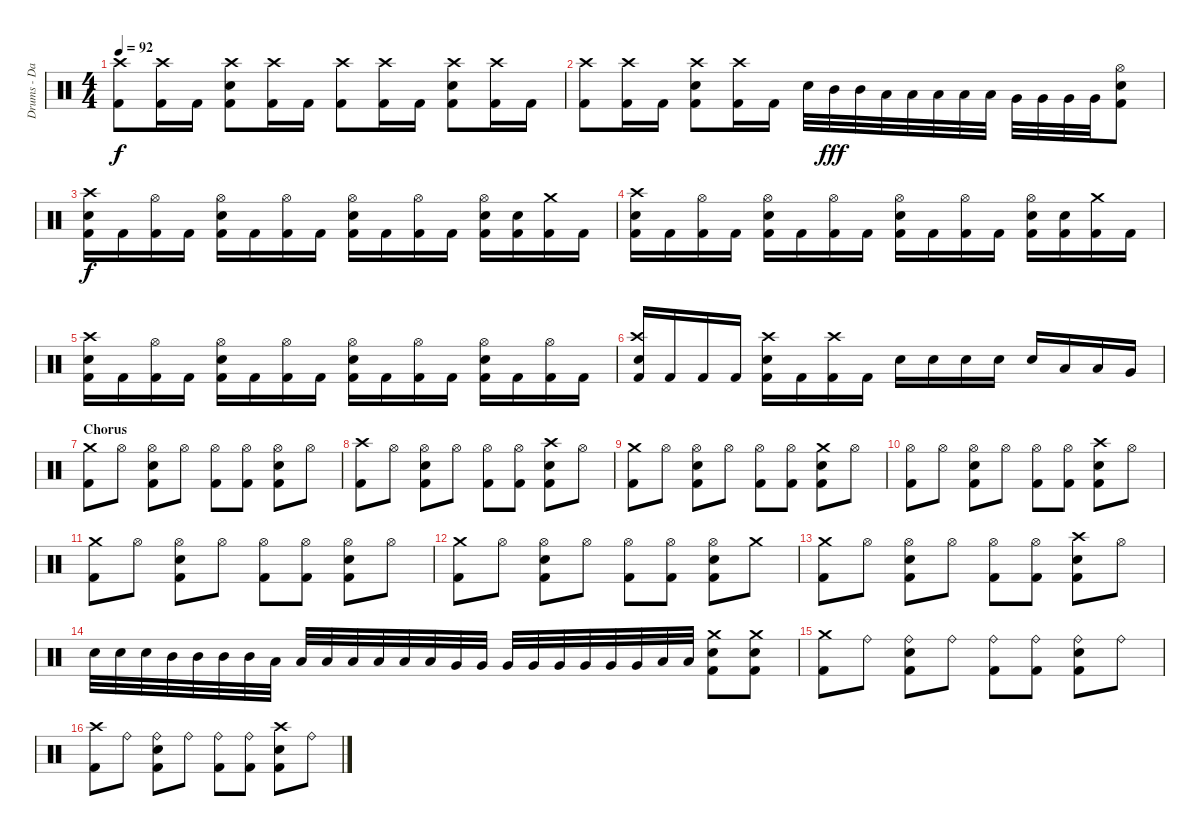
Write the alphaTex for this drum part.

\track ("Drums - Daniel Zimmermann" "Drums - Da") {instrument percussion}
\staff {score}
\articulation defaults
\ts (4 4)
\tempo 92
\clef neutral
\ks c
("Kick (hit) 2" "Crash high (hit)").8{dy f} ("Kick (hit) 2" "Crash high (hit)").16 "Kick (hit) 2".16 ("Kick (hit) 2" "Electric Snare (hit)" "Crash high (hit)").8 ("Kick (hit) 2" "Crash high (hit)").16 "Kick (hit) 2".16 ("Kick (hit) 2" "Crash high (hit)").8 ("Kick (hit) 2" "Crash high (hit)").16 "Kick (hit) 2".16 ("Kick (hit) 2" "Electric Snare (hit)" "Crash high (hit)").8 ("Kick (hit) 2" "Crash high (hit)").16 "Kick (hit) 2".16 |
("Kick (hit) 2" "Crash high (hit)").8 ("Kick (hit) 2" "Crash high (hit)").16 "Kick (hit) 2".16 ("Kick (hit) 2" "Electric Snare (hit)" "Crash high (hit)").8 ("Kick (hit) 2" "Crash high (hit)").16 "Kick (hit) 2".16 "Electric Snare (hit)".32 "Mid Tom (hit)".32{dy fff} "Mid Tom (hit)".32 "Low Tom (hit)".32 "Low Tom (hit)".32 "Low Tom (hit)".32 "Low Tom (hit)".32 "Low Tom (hit)".32 "Very Low Tom (hit)".32 "Very Low Tom (hit)".32 "Very Low Tom (hit)".32 "Very Low Tom (hit)".32 ("Kick (hit) 2" "Electric Snare (hit)" "Hi-Hat (open)").8 |
("Kick (hit) 2" "Electric Snare (hit)" "Crash high (hit)").16{dy f} "Kick (hit) 2".16 ("Kick (hit) 2" "Hi-Hat (open)").16 "Kick (hit) 2".16 ("Kick (hit) 2" "Electric Snare (hit)" "Hi-Hat (open)").16 "Kick (hit) 2".16 ("Kick (hit) 2" "Hi-Hat (open)").16 "Kick (hit) 2".16 ("Kick (hit) 2" "Electric Snare (hit)" "Hi-Hat (open)").16 "Kick (hit) 2".16 ("Kick (hit) 2" "Hi-Hat (open)").16 "Kick (hit) 2".16 ("Kick (hit) 2" "Electric Snare (hit)" "Hi-Hat (open)").16 ("Kick (hit) 2" "Electric Snare (hit)").16 ("Kick (hit) 2" "Crash medium (hit)").16 "Kick (hit) 2".16 |
("Kick (hit) 2" "Electric Snare (hit)" "Crash high (hit)").16 "Kick (hit) 2".16 ("Kick (hit) 2" "Hi-Hat (open)").16 "Kick (hit) 2".16 ("Kick (hit) 2" "Electric Snare (hit)" "Hi-Hat (open)").16 "Kick (hit) 2".16 ("Kick (hit) 2" "Hi-Hat (open)").16 "Kick (hit) 2".16 ("Kick (hit) 2" "Electric Snare (hit)" "Hi-Hat (open)").16 "Kick (hit) 2".16 ("Kick (hit) 2" "Hi-Hat (open)").16 "Kick (hit) 2".16 ("Kick (hit) 2" "Electric Snare (hit)" "Hi-Hat (open)").16 ("Kick (hit) 2" "Electric Snare (hit)").16 ("Kick (hit) 2" "Crash medium (hit)").16 "Kick (hit) 2".16 |
("Kick (hit) 2" "Electric Snare (hit)" "Crash high (hit)").16 "Kick (hit) 2".16 ("Kick (hit) 2" "Hi-Hat (open)").16 "Kick (hit) 2".16 ("Kick (hit) 2" "Electric Snare (hit)" "Hi-Hat (open)").16 "Kick (hit) 2".16 ("Kick (hit) 2" "Hi-Hat (open)").16 "Kick (hit) 2".16 ("Kick (hit) 2" "Electric Snare (hit)" "Hi-Hat (open)").16 "Kick (hit) 2".16 ("Kick (hit) 2" "Hi-Hat (open)").16 "Kick (hit) 2".16 ("Kick (hit) 2" "Electric Snare (hit)" "Hi-Hat (open)").16 "Kick (hit) 2".16 ("Kick (hit) 2" "Hi-Hat (open)").16 "Kick (hit) 2".16 |
("Kick (hit) 2" "Electric Snare (hit)" "Crash high (hit)").16 "Kick (hit) 2".16 "Kick (hit) 2".16 "Kick (hit) 2".16 ("Kick (hit) 2" "Electric Snare (hit)" "Crash high (hit)").16 "Kick (hit) 2".16 ("Kick (hit) 2" "Crash high (hit)").16 "Kick (hit) 2".16 "Electric Snare (hit)".16 "Electric Snare (hit)".16 "Electric Snare (hit)".16 "Electric Snare (hit)".16 "Electric Snare (hit)".16 "Low Tom (hit)".16 "Low Tom (hit)".16 "Very Low Tom (hit)".16 |
\section ("" "Chorus")
("Kick (hit) 2" "Crash medium (hit)").8 "Hi-Hat (open)".8 ("Kick (hit) 2" "Electric Snare (hit)" "Hi-Hat (open)").8 "Hi-Hat (open)".8 ("Kick (hit) 2" "Hi-Hat (open)").8 ("Kick (hit) 2" "Hi-Hat (open)").8 ("Kick (hit) 2" "Electric Snare (hit)" "Hi-Hat (open)").8 "Hi-Hat (open)".8 |
("Kick (hit) 2" "Crash high (hit)").8 "Hi-Hat (open)".8 ("Kick (hit) 2" "Electric Snare (hit)" "Hi-Hat (open)").8 "Hi-Hat (open)".8 ("Kick (hit) 2" "Hi-Hat (open)").8 ("Kick (hit) 2" "Hi-Hat (open)").8 ("Kick (hit) 2" "Electric Snare (hit)" "Crash high (hit)").8 "Hi-Hat (open)".8 |
("Kick (hit) 2" "Crash medium (hit)").8 "Hi-Hat (open)".8 ("Kick (hit) 2" "Electric Snare (hit)" "Hi-Hat (open)").8 "Hi-Hat (open)".8 ("Kick (hit) 2" "Hi-Hat (open)").8 ("Kick (hit) 2" "Hi-Hat (open)").8 ("Kick (hit) 2" "Electric Snare (hit)" "Crash medium (hit)").8 "Hi-Hat (open)".8 |
("Kick (hit) 2" "Hi-Hat (open)").8 "Hi-Hat (open)".8 ("Kick (hit) 2" "Electric Snare (hit)" "Hi-Hat (open)").8 "Hi-Hat (open)".8 ("Kick (hit) 2" "Hi-Hat (open)").8 ("Kick (hit) 2" "Hi-Hat (open)").8 ("Kick (hit) 2" "Electric Snare (hit)" "Crash high (hit)").8 "Hi-Hat (open)".8 |
("Kick (hit) 2" "Crash medium (hit)").8 "Hi-Hat (open)".8 ("Kick (hit) 2" "Electric Snare (hit)" "Hi-Hat (open)").8 "Hi-Hat (open)".8 ("Kick (hit) 2" "Hi-Hat (open)").8 ("Kick (hit) 2" "Hi-Hat (open)").8 ("Kick (hit) 2" "Electric Snare (hit)" "Hi-Hat (open)").8 "Hi-Hat (open)".8 |
("Kick (hit) 2" "Crash medium (hit)").8 "Hi-Hat (open)".8 ("Kick (hit) 2" "Electric Snare (hit)" "Hi-Hat (open)").8 "Hi-Hat (open)".8 ("Kick (hit) 2" "Hi-Hat (open)").8 ("Kick (hit) 2" "Hi-Hat (open)").8 ("Kick (hit) 2" "Electric Snare (hit)" "Hi-Hat (open)").8 "Crash medium (hit)".8 |
("Kick (hit) 2" "Crash medium (hit)").8 "Hi-Hat (open)".8 ("Kick (hit) 2" "Electric Snare (hit)" "Hi-Hat (open)").8 "Hi-Hat (open)".8 ("Kick (hit) 2" "Hi-Hat (open)").8 ("Kick (hit) 2" "Hi-Hat (open)").8 ("Kick (hit) 2" "Electric Snare (hit)" "Crash high (hit)").8 "Hi-Hat (open)".8 |
"Electric Snare (hit)".32 "Electric Snare (hit)".32 "Electric Snare (hit)".32 "Mid Tom (hit)".32 "Mid Tom (hit)".32 "Mid Tom (hit)".32 "Mid Tom (hit)".32 "Low Tom (hit)".32 "Low Tom (hit)".32 "Low Tom (hit)".32 "Low Tom (hit)".32 "Low Tom (hit)".32 "Low Tom (hit)".32 "Low Tom (hit)".32 "Very Low Tom (hit)".32 "Very Low Tom (hit)".32 "Very Low Tom (hit)".32 "Very Low Tom (hit)".32 "Very Low Tom (hit)".32 "Very Low Tom (hit)".32 "Very Low Tom (hit)".32 "Very Low Tom (hit)".32 "Low Floor Tom (hit)".32 "Low Floor Tom (hit)".32 ("Kick (hit) 2" "Electric Snare (hit)" "Crash medium (hit)").8 ("Kick (hit) 2" "Electric Snare (hit)" "Crash medium (hit)").8 |
("Kick (hit) 2" "Crash medium (hit)").8 "Ride (bell)".8 ("Kick (hit) 2" "Electric Snare (hit)" "Ride (bell)").8 "Ride (bell)".8 ("Kick (hit) 2" "Ride (bell)").8 ("Kick (hit) 2" "Ride (bell)").8 ("Kick (hit) 2" "Electric Snare (hit)" "Ride (bell)").8 "Ride (bell)".8 |
("Kick (hit) 2" "Crash high (hit)").8 "Ride (bell)".8 ("Kick (hit) 2" "Electric Snare (hit)" "Ride (bell)").8 "Ride (bell)".8 ("Kick (hit) 2" "Ride (bell)").8 ("Kick (hit) 2" "Ride (bell)").8 ("Kick (hit) 2" "Electric Snare (hit)" "Crash high (hit)").8 "Ride (bell)".8
